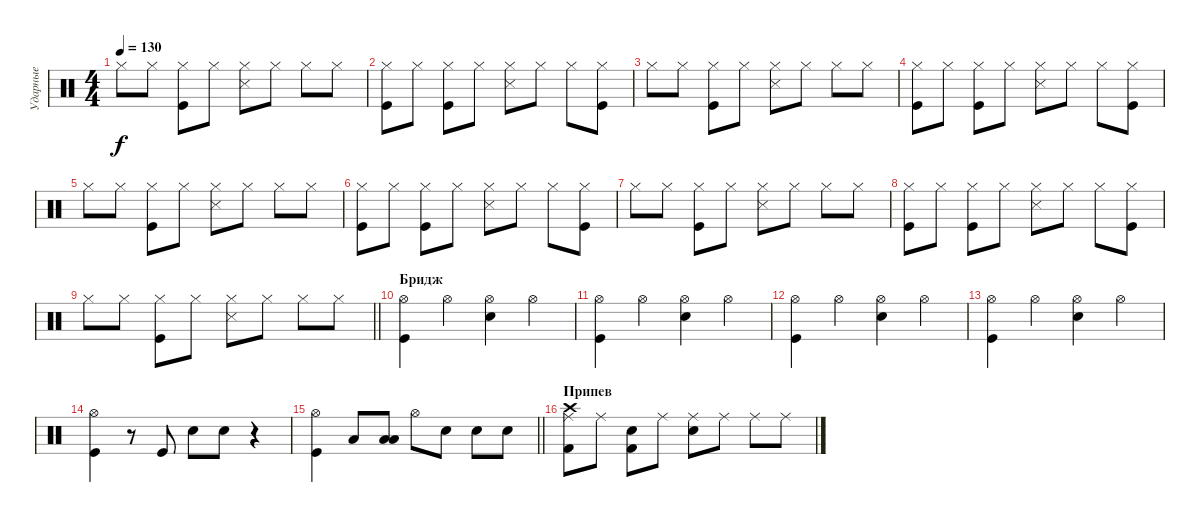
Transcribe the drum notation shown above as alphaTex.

\track ("Ударные" "Ударные") {instrument percussion}
\staff {score}
\articulation defaults
\ts (4 4)
\tempo 130
\clef neutral
\ks c "Hi-Hat (closed)".8{dy f} "Hi-Hat (closed)".8
("Hi-Hat (closed)" "Kick (hit)").8 "Hi-Hat (closed)".8 ("Hi-Hat (closed)" "Snare (side stick) 3").8 "Hi-Hat (closed)".8 "Hi-Hat (closed)".8 "Hi-Hat (closed)".8 |
("Hi-Hat (closed)" "Kick (hit)").8 "Hi-Hat (closed)".8 ("Hi-Hat (closed)" "Kick (hit)").8 "Hi-Hat (closed)".8 ("Hi-Hat (closed)" "Snare (side stick) 3").8 "Hi-Hat (closed)".8 "Hi-Hat (closed)".8 ("Hi-Hat (closed)" "Kick (hit)").8 |
"Hi-Hat (closed)".8 "Hi-Hat (closed)".8 ("Hi-Hat (closed)" "Kick (hit)").8 "Hi-Hat (closed)".8 ("Hi-Hat (closed)" "Snare (side stick) 3").8 "Hi-Hat (closed)".8 "Hi-Hat (closed)".8 "Hi-Hat (closed)".8 |
("Hi-Hat (closed)" "Kick (hit)").8 "Hi-Hat (closed)".8 ("Hi-Hat (closed)" "Kick (hit)").8 "Hi-Hat (closed)".8 ("Hi-Hat (closed)" "Snare (side stick) 3").8 "Hi-Hat (closed)".8 "Hi-Hat (closed)".8 ("Hi-Hat (closed)" "Kick (hit)").8 |
"Hi-Hat (closed)".8 "Hi-Hat (closed)".8 ("Hi-Hat (closed)" "Kick (hit)").8 "Hi-Hat (closed)".8 ("Hi-Hat (closed)" "Snare (side stick) 3").8 "Hi-Hat (closed)".8 "Hi-Hat (closed)".8 "Hi-Hat (closed)".8 |
("Hi-Hat (closed)" "Kick (hit)").8 "Hi-Hat (closed)".8 ("Hi-Hat (closed)" "Kick (hit)").8 "Hi-Hat (closed)".8 ("Hi-Hat (closed)" "Snare (side stick) 3").8 "Hi-Hat (closed)".8 "Hi-Hat (closed)".8 ("Hi-Hat (closed)" "Kick (hit)").8 |
"Hi-Hat (closed)".8 "Hi-Hat (closed)".8 ("Hi-Hat (closed)" "Kick (hit)").8 "Hi-Hat (closed)".8 ("Hi-Hat (closed)" "Snare (side stick) 3").8 "Hi-Hat (closed)".8 "Hi-Hat (closed)".8 "Hi-Hat (closed)".8 |
("Hi-Hat (closed)" "Kick (hit)").8 "Hi-Hat (closed)".8 ("Hi-Hat (closed)" "Kick (hit)").8 "Hi-Hat (closed)".8 ("Hi-Hat (closed)" "Snare (side stick) 3").8 "Hi-Hat (closed)".8 "Hi-Hat (closed)".8 ("Hi-Hat (closed)" "Kick (hit)").8 |
\barLineRight lightlight "Hi-Hat (closed)".8 "Hi-Hat (closed)".8
("Hi-Hat (closed)" "Kick (hit)").8 "Hi-Hat (closed)".8 ("Hi-Hat (closed)" "Snare (side stick) 3").8 "Hi-Hat (closed)".8 "Hi-Hat (closed)".8 "Hi-Hat (closed)".8 |
\section ("" "Бридж")
("Hi-Hat (open)" "Kick (hit)").4 "Hi-Hat (open)".4 ("Hi-Hat (open)" "Electric Snare (hit)").4 "Hi-Hat (open)".4 |
("Hi-Hat (open)" "Kick (hit)").4 "Hi-Hat (open)".4 ("Hi-Hat (open)" "Electric Snare (hit)").4 "Hi-Hat (open)".4 |
("Hi-Hat (open)" "Kick (hit)").4 "Hi-Hat (open)".4 ("Hi-Hat (open)" "Electric Snare (hit)").4 "Hi-Hat (open)".4 |
("Hi-Hat (open)" "Kick (hit)").4 "Hi-Hat (open)".4 ("Hi-Hat (open)" "Electric Snare (hit)").4 "Hi-Hat (open)".4 |
("Hi-Hat (open)" "Kick (hit)").4 r.8 "Kick (hit)".8 "Electric Snare (hit)".8 "Electric Snare (hit)".8 r.4 |
\barLineRight lightlight
("Hi-Hat (open)" "Kick (hit)").4 "Low Tom (hit)".8 ("Low Tom (hit)" "Low Tom (hit)").8 "Hi-Hat (open)".8 "Electric Snare (hit)".8 "Electric Snare (hit)".8 "Electric Snare (hit)".8 |
\section ("" "Припев")
("Crash high (hit)" "Ride (middle)" "Kick (hit) 2").8 "Ride (middle)".8 ("Snare (hit)" "Kick (hit) 2").8 "Ride (middle)".8 ("Ride (middle)" "Electric Snare (hit)").8 "Ride (middle)".8 "Ride (middle)".8 "Ride (middle)".8
